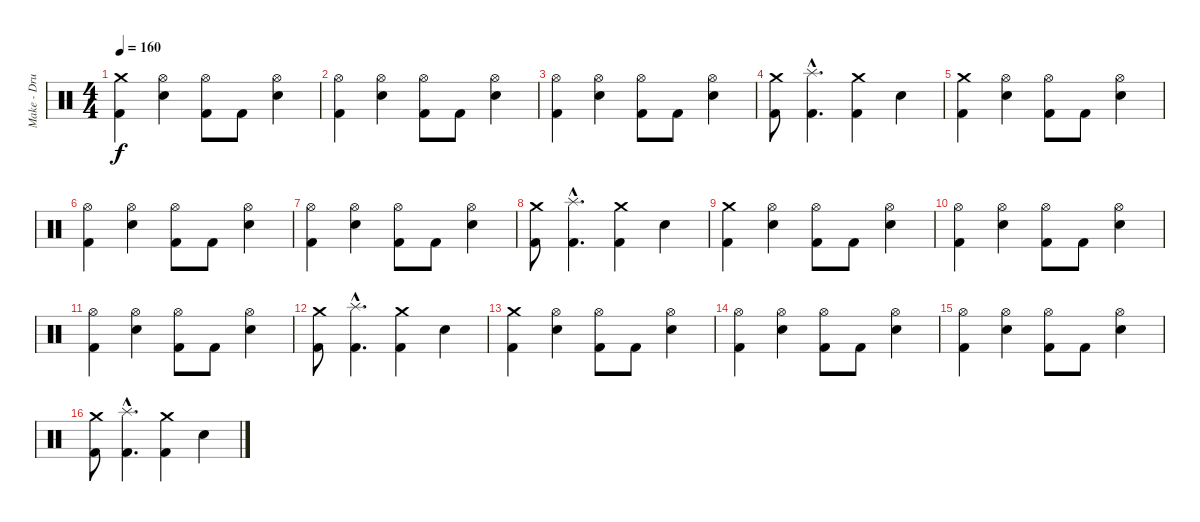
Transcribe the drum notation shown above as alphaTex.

\track ("Make - Drums" "Make - Dru") {instrument percussion}
\staff {score}
\articulation defaults
\ts (4 4)
\tempo 160
\clef neutral
\ks c
("Kick (hit) 2" "Crash medium (hit)").4{dy f} ("Snare (hit) 2" "Hi-Hat (open)").4 ("Kick (hit) 2" "Hi-Hat (open)").8 "Kick (hit) 2".8 ("Snare (hit) 2" "Hi-Hat (open)").4 |
("Kick (hit) 2" "Hi-Hat (open)").4 ("Snare (hit) 2" "Hi-Hat (open)").4 ("Kick (hit) 2" "Hi-Hat (open)").8 "Kick (hit) 2".8 ("Snare (hit) 2" "Hi-Hat (open)").4 |
("Kick (hit) 2" "Hi-Hat (open)").4 ("Snare (hit) 2" "Hi-Hat (open)").4 ("Kick (hit) 2" "Hi-Hat (open)").8 "Kick (hit) 2".8 ("Snare (hit) 2" "Hi-Hat (open)").4 |
("Kick (hit) 2" "Crash medium (hit)").8 ("Kick (hit) 2"{hac} "Splash (hit)"{hac}).4{d} ("Kick (hit) 2" "Crash medium (hit)").4 "Snare (hit) 2".4 |
("Kick (hit) 2" "Crash medium (hit)").4 ("Snare (hit) 2" "Hi-Hat (open)").4 ("Kick (hit) 2" "Hi-Hat (open)").8 "Kick (hit) 2".8 ("Snare (hit) 2" "Hi-Hat (open)").4 |
("Kick (hit) 2" "Hi-Hat (open)").4 ("Snare (hit) 2" "Hi-Hat (open)").4 ("Kick (hit) 2" "Hi-Hat (open)").8 "Kick (hit) 2".8 ("Snare (hit) 2" "Hi-Hat (open)").4 |
("Kick (hit) 2" "Hi-Hat (open)").4 ("Snare (hit) 2" "Hi-Hat (open)").4 ("Kick (hit) 2" "Hi-Hat (open)").8 "Kick (hit) 2".8 ("Snare (hit) 2" "Hi-Hat (open)").4 |
("Kick (hit) 2" "Crash medium (hit)").8 ("Kick (hit) 2"{hac} "Splash (hit)"{hac}).4{d} ("Kick (hit) 2" "Crash medium (hit)").4 "Snare (hit) 2".4 |
("Kick (hit) 2" "Crash medium (hit)").4 ("Snare (hit) 2" "Hi-Hat (open)").4 ("Kick (hit) 2" "Hi-Hat (open)").8 "Kick (hit) 2".8 ("Snare (hit) 2" "Hi-Hat (open)").4 |
("Kick (hit) 2" "Hi-Hat (open)").4 ("Snare (hit) 2" "Hi-Hat (open)").4 ("Kick (hit) 2" "Hi-Hat (open)").8 "Kick (hit) 2".8 ("Snare (hit) 2" "Hi-Hat (open)").4 |
("Kick (hit) 2" "Hi-Hat (open)").4 ("Snare (hit) 2" "Hi-Hat (open)").4 ("Kick (hit) 2" "Hi-Hat (open)").8 "Kick (hit) 2".8 ("Snare (hit) 2" "Hi-Hat (open)").4 |
("Kick (hit) 2" "Crash medium (hit)").8 ("Kick (hit) 2"{hac} "Splash (hit)"{hac}).4{d} ("Kick (hit) 2" "Crash medium (hit)").4 "Snare (hit) 2".4 |
("Kick (hit) 2" "Crash medium (hit)").4 ("Snare (hit) 2" "Hi-Hat (open)").4 ("Kick (hit) 2" "Hi-Hat (open)").8 "Kick (hit) 2".8 ("Snare (hit) 2" "Hi-Hat (open)").4 |
("Kick (hit) 2" "Hi-Hat (open)").4 ("Snare (hit) 2" "Hi-Hat (open)").4 ("Kick (hit) 2" "Hi-Hat (open)").8 "Kick (hit) 2".8 ("Snare (hit) 2" "Hi-Hat (open)").4 |
("Kick (hit) 2" "Hi-Hat (open)").4 ("Snare (hit) 2" "Hi-Hat (open)").4 ("Kick (hit) 2" "Hi-Hat (open)").8 "Kick (hit) 2".8 ("Snare (hit) 2" "Hi-Hat (open)").4 |
("Kick (hit) 2" "Crash medium (hit)").8 ("Kick (hit) 2"{hac} "Splash (hit)"{hac}).4{d} ("Kick (hit) 2" "Crash medium (hit)").4 "Snare (hit) 2".4
